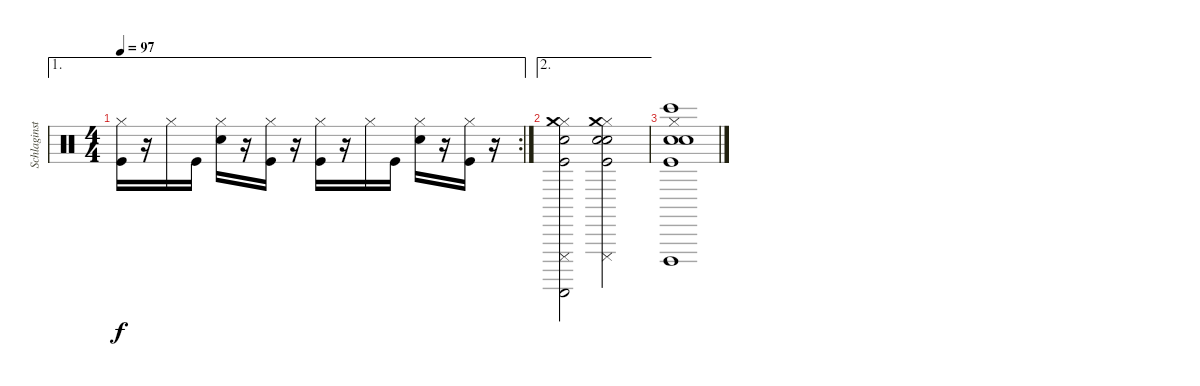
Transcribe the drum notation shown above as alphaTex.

\track ("Schlaginstrumente - Auswahl" "Schlaginst") {instrument percussion}
\staff {score}
\articulation defaults
\ae 1
\rc 2
\ts (4 4)
\tempo 97
\clef neutral
\ks c
("Hi-Hat (closed)" "Kick (hit)").16{dy f} r.16 "Hi-Hat (closed)".16 "Kick (hit)".16 ("Hi-Hat (closed)" "Snare (hit) 2").16 r.16 ("Hi-Hat (closed)" "Kick (hit)").16 r.16 ("Hi-Hat (closed)" "Kick (hit)").16 r.16 "Hi-Hat (closed)".16 "Kick (hit)".16 ("Hi-Hat (closed)" "Snare (hit) 2").16 r.16 ("Hi-Hat (closed)" "Kick (hit)").16 r.16 |
\ae 2
("Hi-Hat (closed)" "Snare (hit)" "Guiro (scrap-return)" "Cuica (mute)" "Crash medium (hit)" "Kick (hit)").2 ("Hi-Hat (closed)" "Snare (hit)" "Snare (hit)" "Cuica (mute)" "Crash medium (hit)" "Kick (hit)").2 |
("Hi-Hat (closed)" "Bongo High (hit)" "Snare (hit)" "Cuica (open)" "Snare (hit)" "Kick (hit)").1
